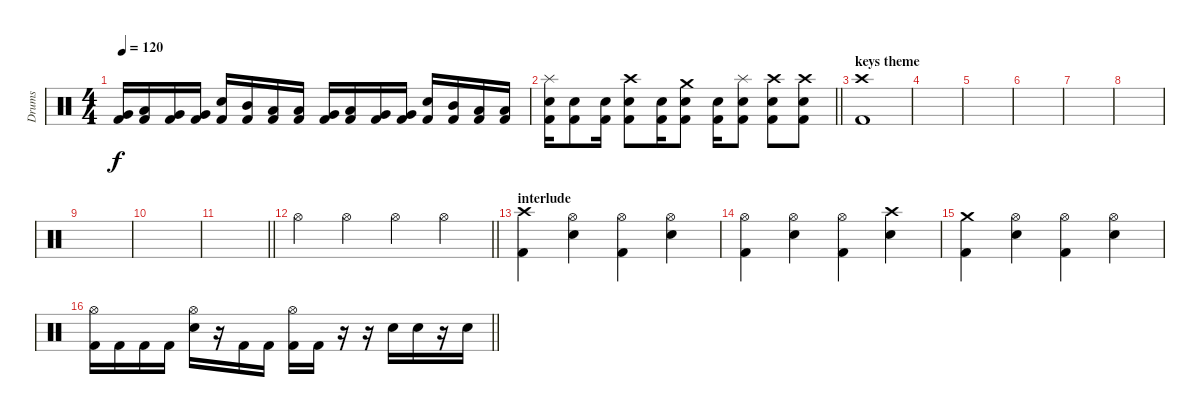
\track ("Drums" "Drums") {instrument percussion}
\staff {score}
\articulation defaults
\ts (4 4)
\tempo 120
\clef neutral
\ks c
("Very Low Tom (hit)" "Kick (hit) 2").16{dy f} ("Low Tom (hit)" "Kick (hit) 2").16 ("Very Low Tom (hit)" "Kick (hit) 2").16 ("Very Low Tom (hit)" "Kick (hit) 2").16 ("Snare (hit) 2" "Kick (hit) 2").16 ("Mid Tom (hit)" "Kick (hit) 2").16 ("Low Tom (hit)" "Kick (hit) 2").16 ("Low Tom (hit)" "Kick (hit) 2").16 ("Very Low Tom (hit)" "Kick (hit) 2").16 ("Low Tom (hit)" "Kick (hit) 2").16 ("Very Low Tom (hit)" "Kick (hit) 2").16 ("Very Low Tom (hit)" "Kick (hit) 2").16 ("Snare (hit) 2" "Kick (hit) 2").16 ("Mid Tom (hit)" "Kick (hit) 2").16 ("Low Tom (hit)" "Kick (hit) 2").16 ("Low Tom (hit)" "Kick (hit) 2").16 |
\barLineRight lightlight
("Electric Snare (hit)" "Kick (hit) 2" "Splash (hit)").16 ("Electric Snare (hit)" "Kick (hit) 2").8 ("Electric Snare (hit)" "Kick (hit) 2").16 ("Electric Snare (hit)" "Kick (hit) 2" "Crash high (hit)").8 ("Electric Snare (hit)" "Kick (hit) 2").16 ("Electric Snare (hit)" "Kick (hit) 2" "Crash medium (hit)").8 ("Electric Snare (hit)" "Kick (hit) 2").16 ("Electric Snare (hit)" "Kick (hit) 2" "Splash (hit)").8 ("Electric Snare (hit)" "Kick (hit) 2" "Crash high (hit)").8 ("Electric Snare (hit)" "Kick (hit) 2" "Crash high (hit)").8 |
\section ("" "keys theme")
("Crash high (hit)" "Kick (hit) 2").1 |
|
|
|
|
|
|
|
\barLineRight lightlight
|
\barLineRight lightlight "Hi-Hat (open)".4 "Hi-Hat (open)".4 "Hi-Hat (open)".4 "Hi-Hat (open)".4
|
\section ("" "interlude")
("Kick (hit) 2" "Crash high (hit)").4 ("Snare (hit) 2" "Hi-Hat (open)").4 ("Kick (hit) 2" "Hi-Hat (open)").4 ("Snare (hit) 2" "Hi-Hat (open)").4 |
("Kick (hit) 2" "Hi-Hat (open)").4 ("Snare (hit) 2" "Hi-Hat (open)").4 ("Kick (hit) 2" "Hi-Hat (open)").4 ("Snare (hit) 2" "Crash high (hit)").4 |
("Kick (hit) 2" "Crash medium (hit)").4 ("Snare (hit) 2" "Hi-Hat (open)").4 ("Kick (hit) 2" "Hi-Hat (open)").4 ("Snare (hit) 2" "Hi-Hat (open)").4 |
\barLineRight lightlight
("Kick (hit) 2" "Hi-Hat (open)").16 "Kick (hit) 2".16 "Kick (hit) 2".16 "Kick (hit) 2".16 ("Snare (hit) 2" "Hi-Hat (open)").16 r.16 "Kick (hit) 2".16 "Kick (hit) 2".16 ("Kick (hit) 2" "Hi-Hat (open)").16 "Kick (hit) 2".16 r.16 r.16 "Snare (hit) 2".16 "Snare (hit) 2".16 r.16 "Snare (hit) 2".16
